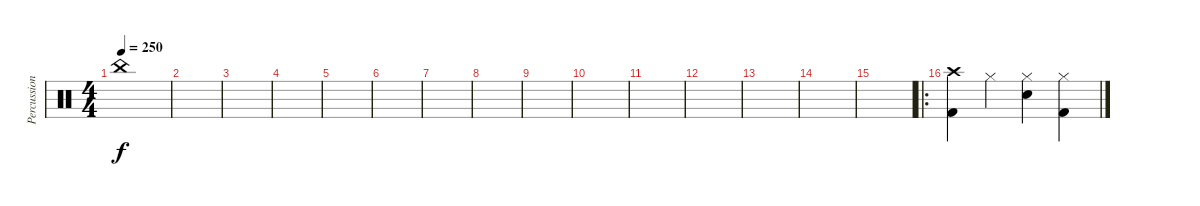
\track ("Percussion" "Percussion") {instrument percussion}
\staff {score}
\articulation defaults
\ts (4 4)
\tempo 250
\clef neutral
\ks c "China (hit)".1{dy f}
|
|
|
|
|
|
|
|
|
|
|
|
|
|
|
\ro
("Crash high (hit)" "Kick (hit) 2").4 "Hi-Hat (closed)".4 ("Hi-Hat (closed)" "Electric Snare (hit)").4 ("Hi-Hat (closed)" "Kick (hit) 2").4
